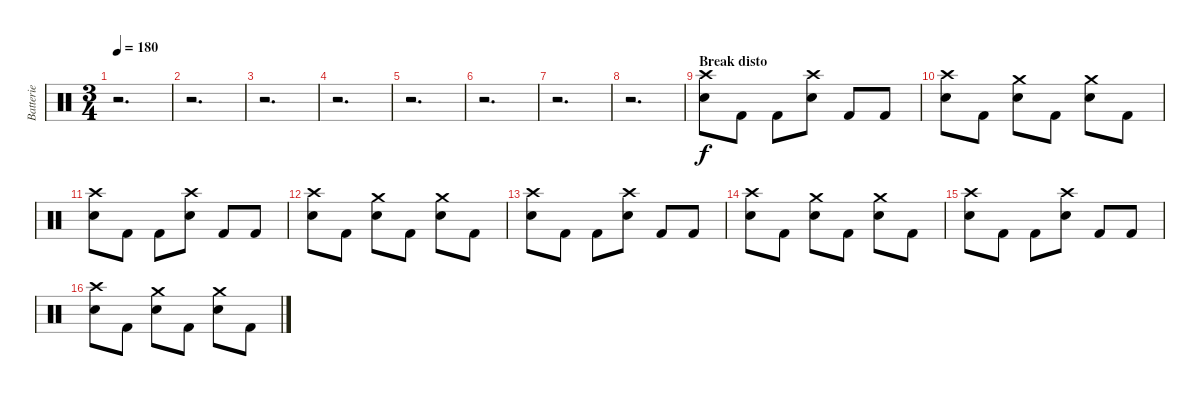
\track ("Batterie" "Batterie") {instrument percussion}
\staff {score}
\articulation defaults
\ts (3 4)
\tempo 180
\clef neutral
\ks c
r.2{d dy f} |
r.2{d} |
r.2{d} |
r.2{d} |
r.2{d} |
r.2{d} |
r.2{d} |
r.2{d} |
\section ("" "Break disto")
("Crash high (hit)" "Electric Snare (hit)").8 "Kick (hit) 2".8 "Kick (hit) 2".8 ("Crash high (hit)" "Electric Snare (hit)").8 "Kick (hit) 2".8 "Kick (hit) 2".8 |
("Crash high (hit)" "Electric Snare (hit)").8 "Kick (hit) 2".8 ("Crash medium (hit)" "Electric Snare (hit)").8 "Kick (hit) 2".8 ("Crash medium (hit)" "Electric Snare (hit)").8 "Kick (hit) 2".8 |
("Crash high (hit)" "Electric Snare (hit)").8 "Kick (hit) 2".8 "Kick (hit) 2".8 ("Crash high (hit)" "Electric Snare (hit)").8 "Kick (hit) 2".8 "Kick (hit) 2".8 |
("Crash high (hit)" "Electric Snare (hit)").8 "Kick (hit) 2".8 ("Crash medium (hit)" "Electric Snare (hit)").8 "Kick (hit) 2".8 ("Crash medium (hit)" "Electric Snare (hit)").8 "Kick (hit) 2".8 |
("Crash high (hit)" "Electric Snare (hit)").8 "Kick (hit) 2".8 "Kick (hit) 2".8 ("Crash high (hit)" "Electric Snare (hit)").8 "Kick (hit) 2".8 "Kick (hit) 2".8 |
("Crash high (hit)" "Electric Snare (hit)").8 "Kick (hit) 2".8 ("Crash medium (hit)" "Electric Snare (hit)").8 "Kick (hit) 2".8 ("Crash medium (hit)" "Electric Snare (hit)").8 "Kick (hit) 2".8 |
("Crash high (hit)" "Electric Snare (hit)").8 "Kick (hit) 2".8 "Kick (hit) 2".8 ("Crash high (hit)" "Electric Snare (hit)").8 "Kick (hit) 2".8 "Kick (hit) 2".8 |
("Crash high (hit)" "Electric Snare (hit)").8 "Kick (hit) 2".8 ("Crash medium (hit)" "Electric Snare (hit)").8 "Kick (hit) 2".8 ("Crash medium (hit)" "Electric Snare (hit)").8 "Kick (hit) 2".8
